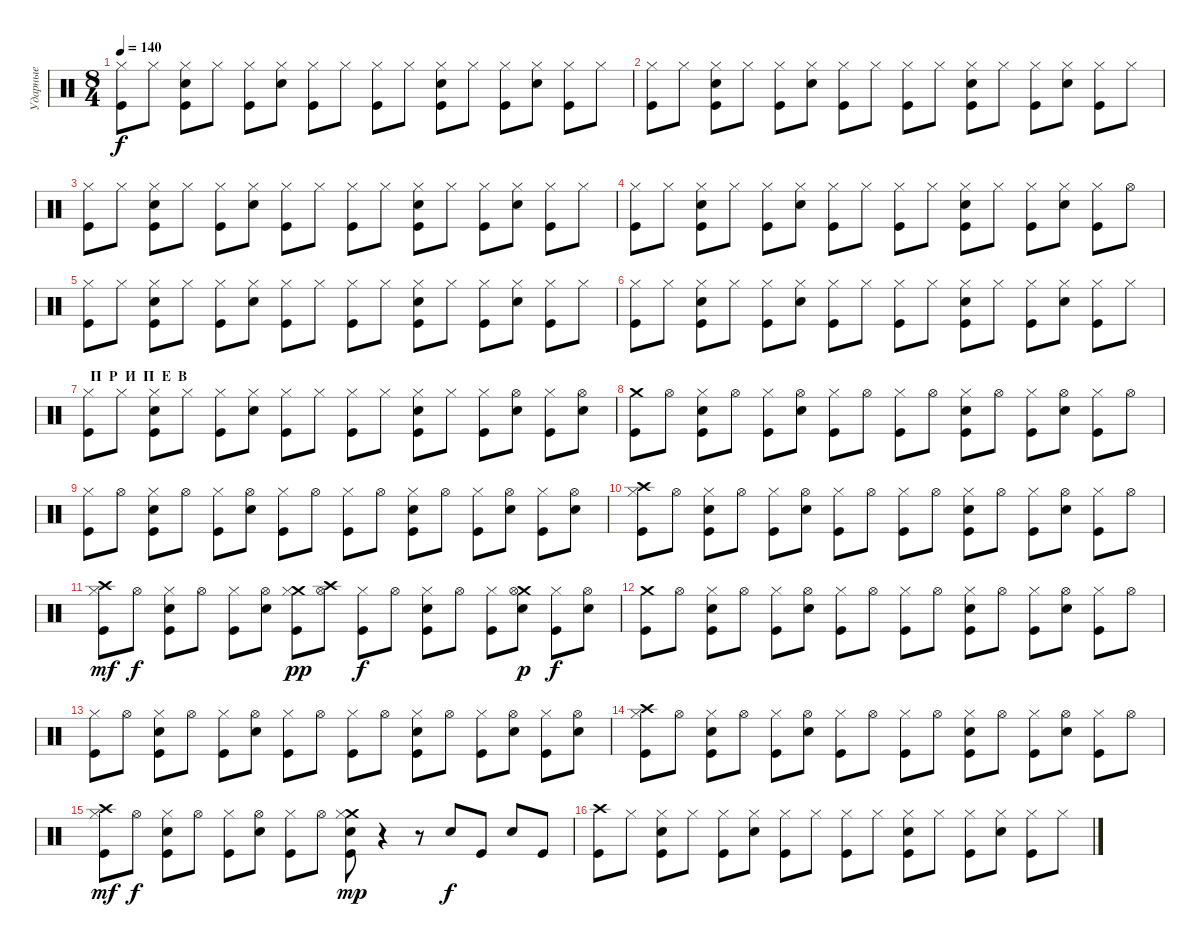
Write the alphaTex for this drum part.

\track ("Ударные" "Ударные") {instrument percussion}
\staff {score}
\articulation defaults
\ts (8 4)
\tempo 140
\clef neutral
\ks c
("Hi-Hat (closed)" "Kick (hit)").8{dy f} "Hi-Hat (closed)".8 ("Hi-Hat (closed)" "Electric Snare (hit)" "Kick (hit)").8 "Hi-Hat (closed)".8 ("Hi-Hat (closed)" "Kick (hit)").8 ("Hi-Hat (closed)" "Electric Snare (hit)").8 ("Hi-Hat (closed)" "Kick (hit)").8 "Hi-Hat (closed)".8 ("Hi-Hat (closed)" "Kick (hit)").8 "Hi-Hat (closed)".8 ("Hi-Hat (closed)" "Electric Snare (hit)" "Kick (hit)").8 "Hi-Hat (closed)".8 ("Hi-Hat (closed)" "Kick (hit)").8 ("Hi-Hat (closed)" "Electric Snare (hit)").8 ("Hi-Hat (closed)" "Kick (hit)").8 "Hi-Hat (closed)".8 |
("Hi-Hat (closed)" "Kick (hit)").8 "Hi-Hat (closed)".8 ("Hi-Hat (closed)" "Electric Snare (hit)" "Kick (hit)").8 "Hi-Hat (closed)".8 ("Hi-Hat (closed)" "Kick (hit)").8 ("Hi-Hat (closed)" "Electric Snare (hit)").8 ("Hi-Hat (closed)" "Kick (hit)").8 "Hi-Hat (closed)".8 ("Hi-Hat (closed)" "Kick (hit)").8 "Hi-Hat (closed)".8 ("Hi-Hat (closed)" "Electric Snare (hit)" "Kick (hit)").8 "Hi-Hat (closed)".8 ("Hi-Hat (closed)" "Kick (hit)").8 ("Hi-Hat (closed)" "Electric Snare (hit)").8 ("Hi-Hat (closed)" "Kick (hit)").8 "Hi-Hat (closed)".8 |
("Hi-Hat (closed)" "Kick (hit)").8 "Hi-Hat (closed)".8 ("Hi-Hat (closed)" "Electric Snare (hit)" "Kick (hit)").8 "Hi-Hat (closed)".8 ("Hi-Hat (closed)" "Kick (hit)").8 ("Hi-Hat (closed)" "Electric Snare (hit)").8 ("Hi-Hat (closed)" "Kick (hit)").8 "Hi-Hat (closed)".8 ("Hi-Hat (closed)" "Kick (hit)").8 "Hi-Hat (closed)".8 ("Hi-Hat (closed)" "Electric Snare (hit)" "Kick (hit)").8 "Hi-Hat (closed)".8 ("Hi-Hat (closed)" "Kick (hit)").8 ("Hi-Hat (closed)" "Electric Snare (hit)").8 ("Hi-Hat (closed)" "Kick (hit)").8 "Hi-Hat (closed)".8 |
("Hi-Hat (closed)" "Kick (hit)").8 "Hi-Hat (closed)".8 ("Hi-Hat (closed)" "Electric Snare (hit)" "Kick (hit)").8 "Hi-Hat (closed)".8 ("Hi-Hat (closed)" "Kick (hit)").8 ("Hi-Hat (closed)" "Electric Snare (hit)").8 ("Hi-Hat (closed)" "Kick (hit)").8 "Hi-Hat (closed)".8 ("Hi-Hat (closed)" "Kick (hit)").8 "Hi-Hat (closed)".8 ("Hi-Hat (closed)" "Electric Snare (hit)" "Kick (hit)").8 "Hi-Hat (closed)".8 ("Hi-Hat (closed)" "Kick (hit)").8 ("Hi-Hat (closed)" "Electric Snare (hit)").8 ("Hi-Hat (closed)" "Kick (hit)").8 "Hi-Hat (open)".8 |
("Hi-Hat (closed)" "Kick (hit)").8 "Hi-Hat (closed)".8 ("Hi-Hat (closed)" "Electric Snare (hit)" "Kick (hit)").8 "Hi-Hat (closed)".8 ("Hi-Hat (closed)" "Kick (hit)").8 ("Hi-Hat (closed)" "Electric Snare (hit)").8 ("Hi-Hat (closed)" "Kick (hit)").8 "Hi-Hat (closed)".8 ("Hi-Hat (closed)" "Kick (hit)").8 "Hi-Hat (closed)".8 ("Hi-Hat (closed)" "Electric Snare (hit)" "Kick (hit)").8 "Hi-Hat (closed)".8 ("Hi-Hat (closed)" "Kick (hit)").8 ("Hi-Hat (closed)" "Electric Snare (hit)").8 ("Hi-Hat (closed)" "Kick (hit)").8 "Hi-Hat (closed)".8 |
("Hi-Hat (closed)" "Kick (hit)").8 "Hi-Hat (closed)".8 ("Hi-Hat (closed)" "Electric Snare (hit)" "Kick (hit)").8 "Hi-Hat (closed)".8 ("Hi-Hat (closed)" "Kick (hit)").8 ("Hi-Hat (closed)" "Electric Snare (hit)").8 ("Hi-Hat (closed)" "Kick (hit)").8 "Hi-Hat (closed)".8 ("Hi-Hat (closed)" "Kick (hit)").8 "Hi-Hat (closed)".8 ("Hi-Hat (closed)" "Electric Snare (hit)" "Kick (hit)").8 "Hi-Hat (closed)".8 ("Hi-Hat (closed)" "Kick (hit)").8 ("Hi-Hat (closed)" "Electric Snare (hit)").8 ("Hi-Hat (closed)" "Kick (hit)").8 "Hi-Hat (closed)".8 |
\section ("" "  П  Р  И  П  Е  В")
("Hi-Hat (closed)" "Kick (hit)").8 "Hi-Hat (closed)".8 ("Hi-Hat (closed)" "Electric Snare (hit)" "Kick (hit)").8 "Hi-Hat (closed)".8 ("Hi-Hat (closed)" "Kick (hit)").8 ("Hi-Hat (closed)" "Electric Snare (hit)").8 ("Hi-Hat (closed)" "Kick (hit)").8 "Hi-Hat (closed)".8 ("Hi-Hat (closed)" "Kick (hit)").8 "Hi-Hat (closed)".8 ("Hi-Hat (closed)" "Electric Snare (hit)" "Kick (hit)").8 "Hi-Hat (closed)".8 ("Hi-Hat (closed)" "Kick (hit)").8 ("Hi-Hat (open)" "Electric Snare (hit)").8 ("Hi-Hat (closed)" "Kick (hit)").8 ("Hi-Hat (open)" "Electric Snare (hit)").8 |
("Crash medium (hit)" "Kick (hit)").8 "Hi-Hat (open)".8 ("Hi-Hat (closed)" "Electric Snare (hit)" "Kick (hit)").8 "Hi-Hat (open)".8 ("Hi-Hat (closed)" "Kick (hit)").8 ("Hi-Hat (open)" "Electric Snare (hit)").8 ("Hi-Hat (closed)" "Kick (hit)").8 "Hi-Hat (open)".8 ("Hi-Hat (closed)" "Kick (hit)").8 "Hi-Hat (open)".8 ("Hi-Hat (closed)" "Electric Snare (hit)" "Kick (hit)").8 "Hi-Hat (open)".8 ("Hi-Hat (closed)" "Kick (hit)").8 ("Hi-Hat (open)" "Electric Snare (hit)").8 ("Hi-Hat (closed)" "Kick (hit)").8 "Hi-Hat (open)".8 |
("Hi-Hat (closed)" "Kick (hit)").8 "Hi-Hat (open)".8 ("Hi-Hat (closed)" "Electric Snare (hit)" "Kick (hit)").8 "Hi-Hat (open)".8 ("Hi-Hat (closed)" "Kick (hit)").8 ("Hi-Hat (open)" "Electric Snare (hit)").8 ("Hi-Hat (closed)" "Kick (hit)").8 "Hi-Hat (open)".8 ("Hi-Hat (closed)" "Kick (hit)").8 "Hi-Hat (open)".8 ("Hi-Hat (closed)" "Electric Snare (hit)" "Kick (hit)").8 "Hi-Hat (open)".8 ("Hi-Hat (closed)" "Kick (hit)").8 ("Hi-Hat (open)" "Electric Snare (hit)").8 ("Hi-Hat (closed)" "Kick (hit)").8 ("Hi-Hat (open)" "Electric Snare (hit)").8 |
("Crash high (hit)" "Hi-Hat (closed)" "Kick (hit)").8 "Hi-Hat (open)".8 ("Hi-Hat (closed)" "Electric Snare (hit)" "Kick (hit)").8 "Hi-Hat (open)".8 ("Hi-Hat (closed)" "Kick (hit)").8 ("Hi-Hat (open)" "Electric Snare (hit)").8 ("Hi-Hat (closed)" "Kick (hit)").8 "Hi-Hat (open)".8 ("Hi-Hat (closed)" "Kick (hit)").8 "Hi-Hat (open)".8 ("Hi-Hat (closed)" "Electric Snare (hit)" "Kick (hit)").8 "Hi-Hat (open)".8 ("Hi-Hat (closed)" "Kick (hit)").8 ("Hi-Hat (open)" "Electric Snare (hit)").8 ("Hi-Hat (closed)" "Kick (hit)").8 "Hi-Hat (open)".8 |
("Crash high (hit)" "Hi-Hat (closed)" "Kick (hit)").8{dy mf} "Hi-Hat (open)".8{dy f} ("Hi-Hat (closed)" "Electric Snare (hit)" "Kick (hit)").8 "Hi-Hat (open)".8 ("Hi-Hat (closed)" "Kick (hit)").8 ("Hi-Hat (open)" "Electric Snare (hit)").8 ("Crash medium (hit)" "Hi-Hat (closed)" "Kick (hit)").8{dy pp} ("Crash high (hit)" "Hi-Hat (open)").8 ("Hi-Hat (closed)" "Kick (hit)").8{dy f} "Hi-Hat (open)".8 ("Hi-Hat (closed)" "Electric Snare (hit)" "Kick (hit)").8 "Hi-Hat (open)".8 ("Hi-Hat (closed)" "Kick (hit)").8 ("Crash medium (hit)" "Hi-Hat (open)" "Electric Snare (hit)").8{dy p} ("Hi-Hat (closed)" "Kick (hit)").8{dy f} ("Hi-Hat (open)" "Electric Snare (hit)").8 |
("Crash medium (hit)" "Kick (hit)").8 "Hi-Hat (open)".8 ("Hi-Hat (closed)" "Electric Snare (hit)" "Kick (hit)").8 "Hi-Hat (open)".8 ("Hi-Hat (closed)" "Kick (hit)").8 ("Hi-Hat (open)" "Electric Snare (hit)").8 ("Hi-Hat (closed)" "Kick (hit)").8 "Hi-Hat (open)".8 ("Hi-Hat (closed)" "Kick (hit)").8 "Hi-Hat (open)".8 ("Hi-Hat (closed)" "Electric Snare (hit)" "Kick (hit)").8 "Hi-Hat (open)".8 ("Hi-Hat (closed)" "Kick (hit)").8 ("Hi-Hat (open)" "Electric Snare (hit)").8 ("Hi-Hat (closed)" "Kick (hit)").8 "Hi-Hat (open)".8 |
("Hi-Hat (closed)" "Kick (hit)").8 "Hi-Hat (open)".8 ("Hi-Hat (closed)" "Electric Snare (hit)" "Kick (hit)").8 "Hi-Hat (open)".8 ("Hi-Hat (closed)" "Kick (hit)").8 ("Hi-Hat (open)" "Electric Snare (hit)").8 ("Hi-Hat (closed)" "Kick (hit)").8 "Hi-Hat (open)".8 ("Hi-Hat (closed)" "Kick (hit)").8 "Hi-Hat (open)".8 ("Hi-Hat (closed)" "Electric Snare (hit)" "Kick (hit)").8 "Hi-Hat (open)".8 ("Hi-Hat (closed)" "Kick (hit)").8 ("Hi-Hat (open)" "Electric Snare (hit)").8 ("Hi-Hat (closed)" "Kick (hit)").8 ("Hi-Hat (open)" "Electric Snare (hit)").8 |
("Crash high (hit)" "Hi-Hat (closed)" "Kick (hit)").8 "Hi-Hat (open)".8 ("Hi-Hat (closed)" "Electric Snare (hit)" "Kick (hit)").8 "Hi-Hat (open)".8 ("Hi-Hat (closed)" "Kick (hit)").8 ("Hi-Hat (open)" "Electric Snare (hit)").8 ("Hi-Hat (closed)" "Kick (hit)").8 "Hi-Hat (open)".8 ("Hi-Hat (closed)" "Kick (hit)").8 "Hi-Hat (open)".8 ("Hi-Hat (closed)" "Electric Snare (hit)" "Kick (hit)").8 "Hi-Hat (open)".8 ("Hi-Hat (closed)" "Kick (hit)").8 ("Hi-Hat (open)" "Electric Snare (hit)").8 ("Hi-Hat (closed)" "Kick (hit)").8 "Hi-Hat (open)".8 |
("Crash high (hit)" "Hi-Hat (closed)" "Kick (hit)").8{dy mf} "Hi-Hat (open)".8{dy f} ("Hi-Hat (closed)" "Electric Snare (hit)" "Kick (hit)").8 "Hi-Hat (open)".8 ("Hi-Hat (closed)" "Kick (hit)").8 ("Hi-Hat (open)" "Electric Snare (hit)").8 ("Hi-Hat (closed)" "Kick (hit)").8 "Hi-Hat (open)".8 ("Crash medium (hit)" "Hi-Hat (closed)" "Electric Snare (hit)" "Kick (hit)").8{dy mp} r.4 r.8 "Electric Snare (hit)".8{dy f} "Kick (hit)".8 "Electric Snare (hit)".8 "Kick (hit)".8 |
("Crash high (hit)" "Kick (hit)").8 "Hi-Hat (closed)".8 ("Hi-Hat (closed)" "Electric Snare (hit)" "Kick (hit)").8 "Hi-Hat (closed)".8 ("Hi-Hat (closed)" "Kick (hit)").8 ("Hi-Hat (closed)" "Electric Snare (hit)").8 ("Hi-Hat (closed)" "Kick (hit)").8 "Hi-Hat (closed)".8 ("Hi-Hat (closed)" "Kick (hit)").8 "Hi-Hat (closed)".8 ("Hi-Hat (closed)" "Electric Snare (hit)" "Kick (hit)").8 "Hi-Hat (closed)".8 ("Hi-Hat (closed)" "Kick (hit)").8 ("Hi-Hat (closed)" "Electric Snare (hit)").8 ("Hi-Hat (closed)" "Kick (hit)").8 "Hi-Hat (closed)".8
